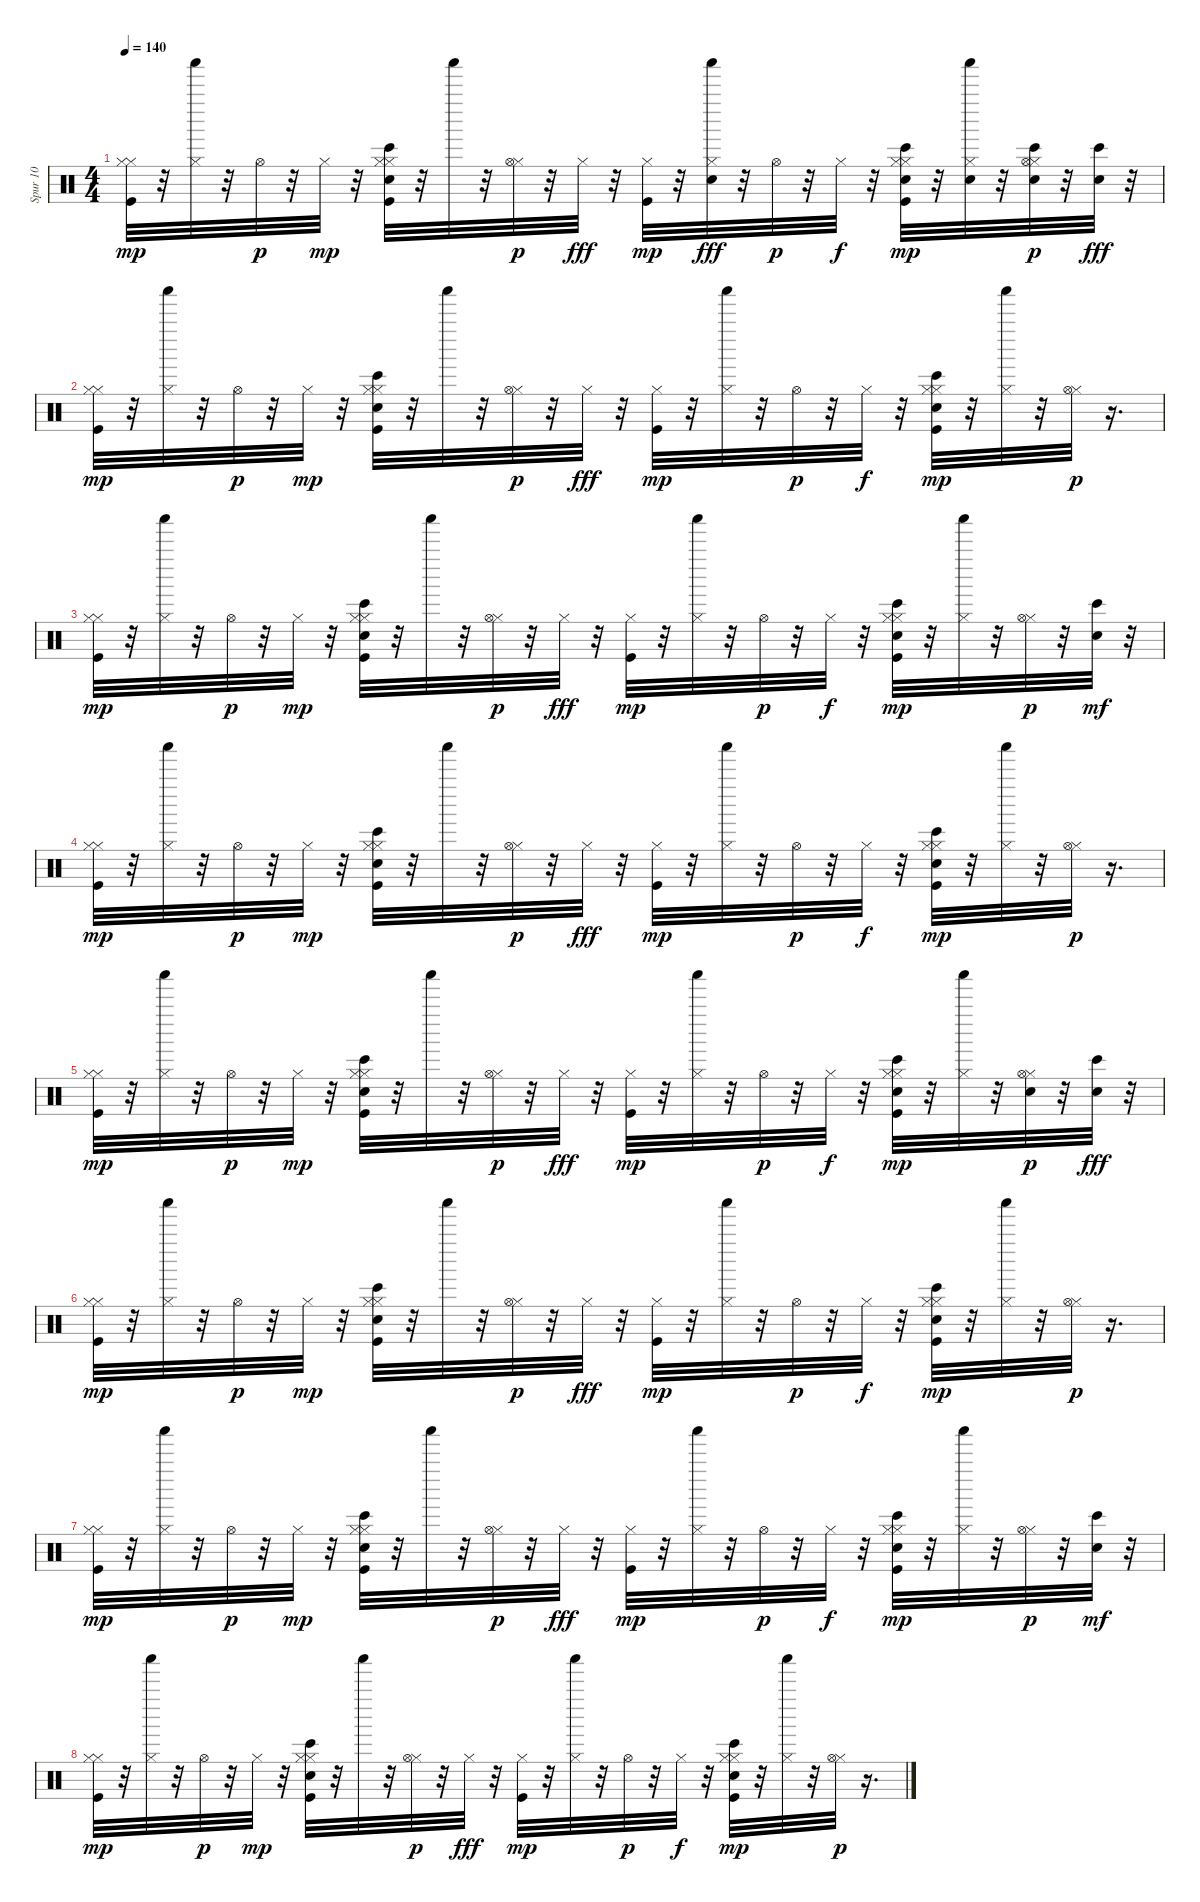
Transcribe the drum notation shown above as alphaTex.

\track ("Spur 10" "Spur 10") {instrument percussion}
\staff {score}
\articulation defaults
\ts (4 4)
\tempo 140
\clef neutral
\ks c
("Hi-Hat (closed)" "Kick (hit)" "Hi-Hat (closed)").32{dy mp} r.32 ("Hi-Hat (closed)" "Shaker (hit)").32 r.32 "Hi-Hat (open)".32{dy p} r.32 "Hi-Hat (closed)".32{dy mp} r.32 ("Hi-Hat (closed)" "Kick (hit)" "Bongo High (hit)" "Electric Snare (hit)" "Hi-Hat (closed)").32 r.32 "Shaker (hit)".32 r.32 ("Hi-Hat (closed)" "Hi-Hat (open)").32{dy p} r.32 "Hi-Hat (closed)".32{dy fff} r.32 ("Kick (hit)" "Hi-Hat (closed)").32{dy mp} r.32 ("Hi-Hat (closed)" "Shaker (hit)" "Snare (hit)").32{dy fff} r.32 "Hi-Hat (open)".32{dy p} r.32 "Hi-Hat (closed)".32{dy f} r.32 ("Hi-Hat (closed)" "Kick (hit)" "Bongo High (hit)" "Electric Snare (hit)" "Hi-Hat (closed)").32{dy mp} r.32 ("Hi-Hat (closed)" "Shaker (hit)" "Snare (hit) 2").32 r.32 ("Hi-Hat (closed)" "Bongo High (hit)" "Electric Snare (hit)" "Hi-Hat (open)").32{dy p} r.32 ("Bongo High (hit)" "Electric Snare (hit)").32{dy fff} r.32 |
("Hi-Hat (closed)" "Kick (hit)" "Hi-Hat (closed)").32{dy mp} r.32 ("Hi-Hat (closed)" "Shaker (hit)").32 r.32 "Hi-Hat (open)".32{dy p} r.32 "Hi-Hat (closed)".32{dy mp} r.32 ("Hi-Hat (closed)" "Kick (hit)" "Bongo High (hit)" "Electric Snare (hit)" "Hi-Hat (closed)").32 r.32 "Shaker (hit)".32 r.32 ("Hi-Hat (closed)" "Hi-Hat (open)").32{dy p} r.32 "Hi-Hat (closed)".32{dy fff} r.32 ("Kick (hit)" "Hi-Hat (closed)").32{dy mp} r.32 ("Hi-Hat (closed)" "Shaker (hit)").32 r.32 "Hi-Hat (open)".32{dy p} r.32 "Hi-Hat (closed)".32{dy f} r.32 ("Hi-Hat (closed)" "Kick (hit)" "Bongo High (hit)" "Electric Snare (hit)" "Hi-Hat (closed)").32{dy mp} r.32 ("Hi-Hat (closed)" "Shaker (hit)").32 r.32 ("Hi-Hat (closed)" "Hi-Hat (open)").32{dy p} r.16{d} |
("Hi-Hat (closed)" "Kick (hit)" "Hi-Hat (closed)").32{dy mp} r.32 ("Hi-Hat (closed)" "Shaker (hit)").32 r.32 "Hi-Hat (open)".32{dy p} r.32 "Hi-Hat (closed)".32{dy mp} r.32 ("Hi-Hat (closed)" "Kick (hit)" "Bongo High (hit)" "Electric Snare (hit)" "Hi-Hat (closed)").32 r.32 "Shaker (hit)".32 r.32 ("Hi-Hat (closed)" "Hi-Hat (open)").32{dy p} r.32 "Hi-Hat (closed)".32{dy fff} r.32 ("Kick (hit)" "Hi-Hat (closed)").32{dy mp} r.32 ("Hi-Hat (closed)" "Shaker (hit)").32 r.32 "Hi-Hat (open)".32{dy p} r.32 "Hi-Hat (closed)".32{dy f} r.32 ("Hi-Hat (closed)" "Kick (hit)" "Bongo High (hit)" "Electric Snare (hit)" "Hi-Hat (closed)").32{dy mp} r.32 ("Hi-Hat (closed)" "Shaker (hit)").32 r.32 ("Hi-Hat (closed)" "Hi-Hat (open)").32{dy p} r.32 ("Bongo High (hit)" "Electric Snare (hit)").32{dy mf} r.32 |
("Hi-Hat (closed)" "Kick (hit)" "Hi-Hat (closed)").32{dy mp} r.32 ("Hi-Hat (closed)" "Shaker (hit)").32 r.32 "Hi-Hat (open)".32{dy p} r.32 "Hi-Hat (closed)".32{dy mp} r.32 ("Hi-Hat (closed)" "Kick (hit)" "Bongo High (hit)" "Electric Snare (hit)" "Hi-Hat (closed)").32 r.32 "Shaker (hit)".32 r.32 ("Hi-Hat (closed)" "Hi-Hat (open)").32{dy p} r.32 "Hi-Hat (closed)".32{dy fff} r.32 ("Kick (hit)" "Hi-Hat (closed)").32{dy mp} r.32 ("Hi-Hat (closed)" "Shaker (hit)").32 r.32 "Hi-Hat (open)".32{dy p} r.32 "Hi-Hat (closed)".32{dy f} r.32 ("Hi-Hat (closed)" "Kick (hit)" "Bongo High (hit)" "Electric Snare (hit)" "Hi-Hat (closed)").32{dy mp} r.32 ("Hi-Hat (closed)" "Shaker (hit)").32 r.32 ("Hi-Hat (closed)" "Hi-Hat (open)").32{dy p} r.16{d} |
("Hi-Hat (closed)" "Kick (hit)" "Hi-Hat (closed)").32{dy mp} r.32 ("Hi-Hat (closed)" "Shaker (hit)").32 r.32 "Hi-Hat (open)".32{dy p} r.32 "Hi-Hat (closed)".32{dy mp} r.32 ("Hi-Hat (closed)" "Kick (hit)" "Bongo High (hit)" "Electric Snare (hit)" "Hi-Hat (closed)").32 r.32 "Shaker (hit)".32 r.32 ("Hi-Hat (closed)" "Hi-Hat (open)").32{dy p} r.32 "Hi-Hat (closed)".32{dy fff} r.32 ("Kick (hit)" "Hi-Hat (closed)").32{dy mp} r.32 ("Hi-Hat (closed)" "Shaker (hit)").32 r.32 "Hi-Hat (open)".32{dy p} r.32 "Hi-Hat (closed)".32{dy f} r.32 ("Hi-Hat (closed)" "Kick (hit)" "Bongo High (hit)" "Electric Snare (hit)" "Hi-Hat (closed)").32{dy mp} r.32 ("Hi-Hat (closed)" "Shaker (hit)").32 r.32 ("Electric Snare (hit)" "Hi-Hat (closed)" "Hi-Hat (open)").32{dy p} r.32 ("Bongo High (hit)" "Electric Snare (hit)").32{dy fff} r.32 |
("Hi-Hat (closed)" "Kick (hit)" "Hi-Hat (closed)").32{dy mp} r.32 ("Hi-Hat (closed)" "Shaker (hit)").32 r.32 "Hi-Hat (open)".32{dy p} r.32 "Hi-Hat (closed)".32{dy mp} r.32 ("Hi-Hat (closed)" "Kick (hit)" "Bongo High (hit)" "Electric Snare (hit)" "Hi-Hat (closed)").32 r.32 "Shaker (hit)".32 r.32 ("Hi-Hat (closed)" "Hi-Hat (open)").32{dy p} r.32 "Hi-Hat (closed)".32{dy fff} r.32 ("Kick (hit)" "Hi-Hat (closed)").32{dy mp} r.32 ("Hi-Hat (closed)" "Shaker (hit)").32 r.32 "Hi-Hat (open)".32{dy p} r.32 "Hi-Hat (closed)".32{dy f} r.32 ("Hi-Hat (closed)" "Kick (hit)" "Bongo High (hit)" "Electric Snare (hit)" "Hi-Hat (closed)").32{dy mp} r.32 ("Hi-Hat (closed)" "Shaker (hit)").32 r.32 ("Hi-Hat (closed)" "Hi-Hat (open)").32{dy p} r.16{d} |
("Hi-Hat (closed)" "Kick (hit)" "Hi-Hat (closed)").32{dy mp} r.32 ("Hi-Hat (closed)" "Shaker (hit)").32 r.32 "Hi-Hat (open)".32{dy p} r.32 "Hi-Hat (closed)".32{dy mp} r.32 ("Hi-Hat (closed)" "Kick (hit)" "Bongo High (hit)" "Electric Snare (hit)" "Hi-Hat (closed)").32 r.32 "Shaker (hit)".32 r.32 ("Hi-Hat (closed)" "Hi-Hat (open)").32{dy p} r.32 "Hi-Hat (closed)".32{dy fff} r.32 ("Kick (hit)" "Hi-Hat (closed)").32{dy mp} r.32 ("Hi-Hat (closed)" "Shaker (hit)").32 r.32 "Hi-Hat (open)".32{dy p} r.32 "Hi-Hat (closed)".32{dy f} r.32 ("Hi-Hat (closed)" "Kick (hit)" "Bongo High (hit)" "Electric Snare (hit)" "Hi-Hat (closed)").32{dy mp} r.32 ("Hi-Hat (closed)" "Shaker (hit)").32 r.32 ("Hi-Hat (closed)" "Hi-Hat (open)").32{dy p} r.32 ("Bongo High (hit)" "Electric Snare (hit)").32{dy mf} r.32 |
("Hi-Hat (closed)" "Kick (hit)" "Hi-Hat (closed)").32{dy mp} r.32 ("Hi-Hat (closed)" "Shaker (hit)").32 r.32 "Hi-Hat (open)".32{dy p} r.32 "Hi-Hat (closed)".32{dy mp} r.32 ("Hi-Hat (closed)" "Kick (hit)" "Bongo High (hit)" "Electric Snare (hit)" "Hi-Hat (closed)").32 r.32 "Shaker (hit)".32 r.32 ("Hi-Hat (closed)" "Hi-Hat (open)").32{dy p} r.32 "Hi-Hat (closed)".32{dy fff} r.32 ("Kick (hit)" "Hi-Hat (closed)").32{dy mp} r.32 ("Hi-Hat (closed)" "Shaker (hit)").32 r.32 "Hi-Hat (open)".32{dy p} r.32 "Hi-Hat (closed)".32{dy f} r.32 ("Hi-Hat (closed)" "Kick (hit)" "Bongo High (hit)" "Electric Snare (hit)" "Hi-Hat (closed)").32{dy mp} r.32 ("Hi-Hat (closed)" "Shaker (hit)").32 r.32 ("Hi-Hat (closed)" "Hi-Hat (open)").32{dy p} r.16{d}
